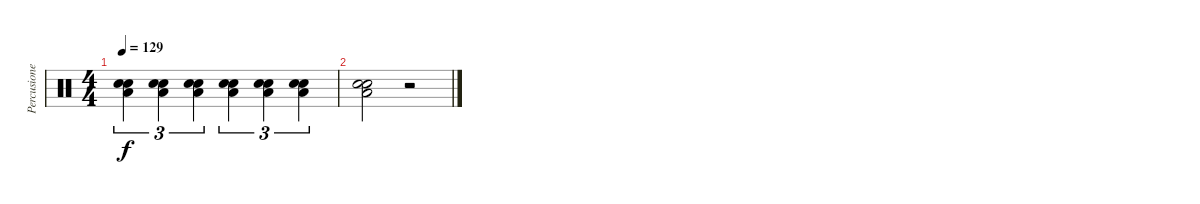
\track ("Percusiones" "Percusione") {instrument percussion}
\staff {score}
\articulation defaults
\ts (4 4)
\tempo 129
\clef neutral
\ks c
("Electric Snare (hit)" "Low Floor Tom (hit)" "Snare (hit) 2").4{tu (3 2) dy f} ("Electric Snare (hit)" "Low Floor Tom (hit)" "Snare (hit) 2").4{tu (3 2)} ("Electric Snare (hit)" "Low Floor Tom (hit)" "Snare (hit) 2").4{tu (3 2)} ("Electric Snare (hit)" "Low Floor Tom (hit)" "Snare (hit) 2").4{tu (3 2)} ("Electric Snare (hit)" "Low Floor Tom (hit)" "Snare (hit) 2").4{tu (3 2)} ("Electric Snare (hit)" "Low Floor Tom (hit)" "Snare (hit) 2").4{tu (3 2)} |
("Snare (hit) 2" "Low Floor Tom (hit)" "Electric Snare (hit)").2 r.2
